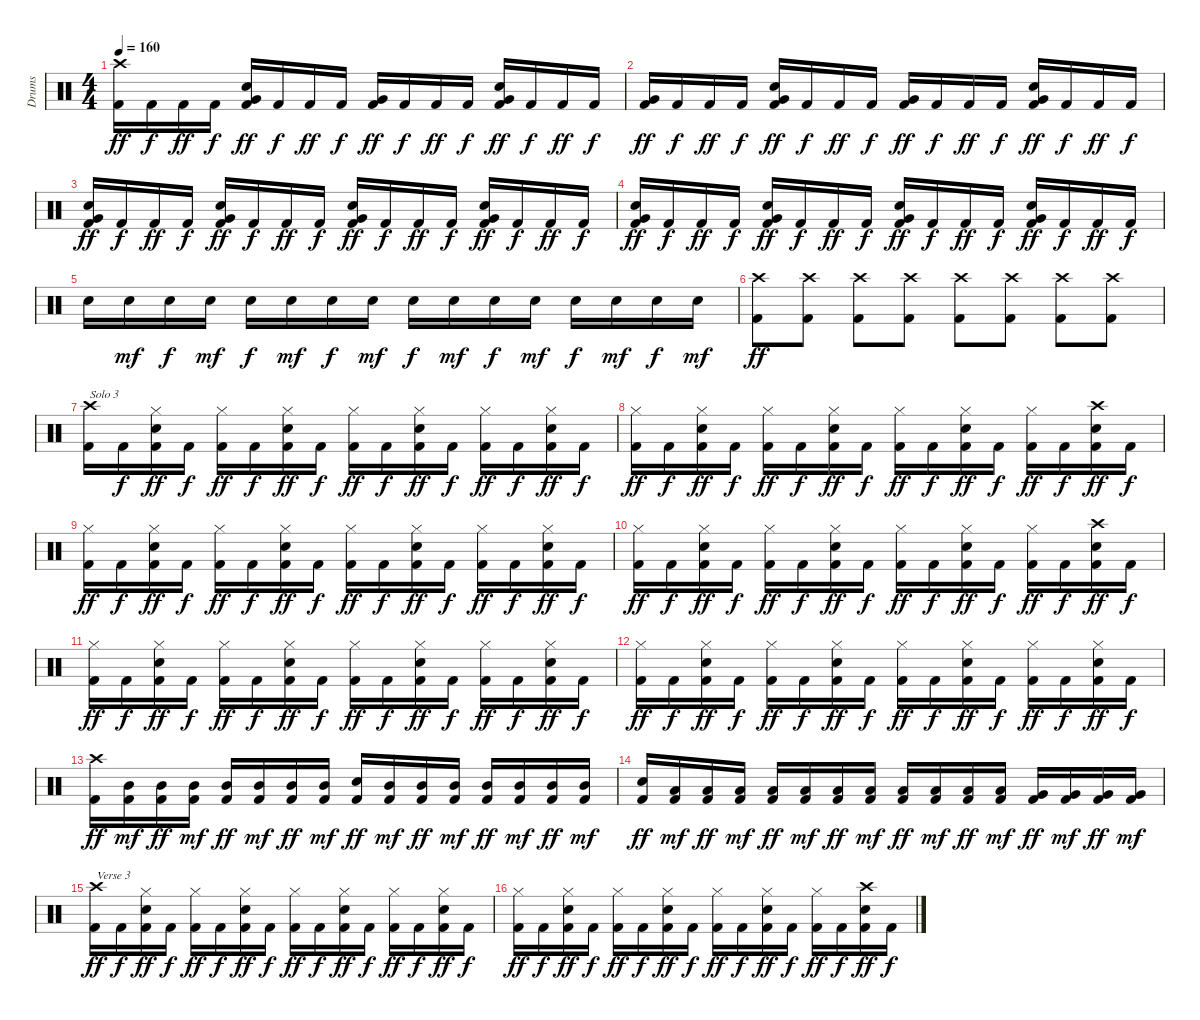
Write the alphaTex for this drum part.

\track ("Drums" "Drums") {instrument percussion}
\staff {score}
\articulation defaults
\ts (4 4)
\tempo 160
\clef neutral
\ks c
("Crash high (hit)" "Kick (hit) 2").16{dy ff} "Kick (hit) 2".16{dy f} "Kick (hit) 2".16{dy ff} "Kick (hit) 2".16{dy f} ("Very Low Tom (hit)" "Snare (hit) 2" "Kick (hit) 2").16{dy ff} "Kick (hit) 2".16{dy f} "Kick (hit) 2".16{dy ff} "Kick (hit) 2".16{dy f} ("Very Low Tom (hit)" "Kick (hit) 2").16{dy ff} "Kick (hit) 2".16{dy f} "Kick (hit) 2".16{dy ff} "Kick (hit) 2".16{dy f} ("Very Low Tom (hit)" "Snare (hit) 2" "Kick (hit) 2").16{dy ff} "Kick (hit) 2".16{dy f} "Kick (hit) 2".16{dy ff} "Kick (hit) 2".16{dy f} |
("Very Low Tom (hit)" "Kick (hit) 2").16{dy ff} "Kick (hit) 2".16{dy f} "Kick (hit) 2".16{dy ff} "Kick (hit) 2".16{dy f} ("Very Low Tom (hit)" "Snare (hit) 2" "Kick (hit) 2").16{dy ff} "Kick (hit) 2".16{dy f} "Kick (hit) 2".16{dy ff} "Kick (hit) 2".16{dy f} ("Very Low Tom (hit)" "Kick (hit) 2").16{dy ff} "Kick (hit) 2".16{dy f} "Kick (hit) 2".16{dy ff} "Kick (hit) 2".16{dy f} ("Very Low Tom (hit)" "Snare (hit) 2" "Kick (hit) 2").16{dy ff} "Kick (hit) 2".16{dy f} "Kick (hit) 2".16{dy ff} "Kick (hit) 2".16{dy f} |
("Very Low Tom (hit)" "Snare (hit) 2" "Kick (hit) 2").16{dy ff} "Kick (hit) 2".16{dy f} "Kick (hit) 2".16{dy ff} "Kick (hit) 2".16{dy f} ("Very Low Tom (hit)" "Snare (hit) 2" "Kick (hit) 2").16{dy ff} "Kick (hit) 2".16{dy f} "Kick (hit) 2".16{dy ff} "Kick (hit) 2".16{dy f} ("Very Low Tom (hit)" "Snare (hit) 2" "Kick (hit) 2").16{dy ff} "Kick (hit) 2".16{dy f} "Kick (hit) 2".16{dy ff} "Kick (hit) 2".16{dy f} ("Very Low Tom (hit)" "Snare (hit) 2" "Kick (hit) 2").16{dy ff} "Kick (hit) 2".16{dy f} "Kick (hit) 2".16{dy ff} "Kick (hit) 2".16{dy f} |
("Very Low Tom (hit)" "Snare (hit) 2" "Kick (hit) 2").16{dy ff} "Kick (hit) 2".16{dy f} "Kick (hit) 2".16{dy ff} "Kick (hit) 2".16{dy f} ("Very Low Tom (hit)" "Snare (hit) 2" "Kick (hit) 2").16{dy ff} "Kick (hit) 2".16{dy f} "Kick (hit) 2".16{dy ff} "Kick (hit) 2".16{dy f} ("Very Low Tom (hit)" "Snare (hit) 2" "Kick (hit) 2").16{dy ff} "Kick (hit) 2".16{dy f} "Kick (hit) 2".16{dy ff} "Kick (hit) 2".16{dy f} ("Very Low Tom (hit)" "Snare (hit) 2" "Kick (hit) 2").16{dy ff} "Kick (hit) 2".16{dy f} "Kick (hit) 2".16{dy ff} "Kick (hit) 2".16{dy f} |
"Snare (hit) 2".16 "Snare (hit) 2".16{dy mf} "Snare (hit) 2".16{dy f} "Snare (hit) 2".16{dy mf} "Snare (hit) 2".16{dy f} "Snare (hit) 2".16{dy mf} "Snare (hit) 2".16{dy f} "Snare (hit) 2".16{dy mf} "Snare (hit) 2".16{dy f} "Snare (hit) 2".16{dy mf} "Snare (hit) 2".16{dy f} "Snare (hit) 2".16{dy mf} "Snare (hit) 2".16{dy f} "Snare (hit) 2".16{dy mf} "Snare (hit) 2".16{dy f} "Snare (hit) 2".16{dy mf} |
("Crash high (hit)" "Kick (hit) 2").8{dy ff} ("Crash high (hit)" "Kick (hit) 2").8 ("Crash high (hit)" "Kick (hit) 2").8 ("Crash high (hit)" "Kick (hit) 2").8 ("Crash high (hit)" "Kick (hit) 2").8 ("Crash high (hit)" "Kick (hit) 2").8 ("Crash high (hit)" "Kick (hit) 2").8 ("Crash high (hit)" "Kick (hit) 2").8 |
("Crash high (hit)" "Kick (hit) 2").16{txt "Solo 3"} "Kick (hit) 2".16{dy f} ("Hi-Hat (closed)" "Snare (hit) 2" "Kick (hit) 2").16{dy ff} "Kick (hit) 2".16{dy f} ("Hi-Hat (closed)" "Kick (hit) 2").16{dy ff} "Kick (hit) 2".16{dy f} ("Hi-Hat (closed)" "Snare (hit) 2" "Kick (hit) 2").16{dy ff} "Kick (hit) 2".16{dy f} ("Hi-Hat (closed)" "Kick (hit) 2").16{dy ff} "Kick (hit) 2".16{dy f} ("Hi-Hat (closed)" "Snare (hit) 2" "Kick (hit) 2").16{dy ff} "Kick (hit) 2".16{dy f} ("Hi-Hat (closed)" "Kick (hit) 2").16{dy ff} "Kick (hit) 2".16{dy f} ("Hi-Hat (closed)" "Snare (hit) 2" "Kick (hit) 2").16{dy ff} "Kick (hit) 2".16{dy f} |
("Hi-Hat (closed)" "Kick (hit) 2").16{dy ff} "Kick (hit) 2".16{dy f} ("Hi-Hat (closed)" "Snare (hit) 2" "Kick (hit) 2").16{dy ff} "Kick (hit) 2".16{dy f} ("Hi-Hat (closed)" "Kick (hit) 2").16{dy ff} "Kick (hit) 2".16{dy f} ("Hi-Hat (closed)" "Snare (hit) 2" "Kick (hit) 2").16{dy ff} "Kick (hit) 2".16{dy f} ("Hi-Hat (closed)" "Kick (hit) 2").16{dy ff} "Kick (hit) 2".16{dy f} ("Hi-Hat (closed)" "Snare (hit) 2" "Kick (hit) 2").16{dy ff} "Kick (hit) 2".16{dy f} ("Hi-Hat (closed)" "Kick (hit) 2").16{dy ff} "Kick (hit) 2".16{dy f} ("Crash high (hit)" "Snare (hit) 2" "Kick (hit) 2").16{dy ff} "Kick (hit) 2".16{dy f} |
("Hi-Hat (closed)" "Kick (hit) 2").16{dy ff} "Kick (hit) 2".16{dy f} ("Hi-Hat (closed)" "Snare (hit) 2" "Kick (hit) 2").16{dy ff} "Kick (hit) 2".16{dy f} ("Hi-Hat (closed)" "Kick (hit) 2").16{dy ff} "Kick (hit) 2".16{dy f} ("Hi-Hat (closed)" "Snare (hit) 2" "Kick (hit) 2").16{dy ff} "Kick (hit) 2".16{dy f} ("Hi-Hat (closed)" "Kick (hit) 2").16{dy ff} "Kick (hit) 2".16{dy f} ("Hi-Hat (closed)" "Snare (hit) 2" "Kick (hit) 2").16{dy ff} "Kick (hit) 2".16{dy f} ("Hi-Hat (closed)" "Kick (hit) 2").16{dy ff} "Kick (hit) 2".16{dy f} ("Hi-Hat (closed)" "Snare (hit) 2" "Kick (hit) 2").16{dy ff} "Kick (hit) 2".16{dy f} |
("Hi-Hat (closed)" "Kick (hit) 2").16{dy ff} "Kick (hit) 2".16{dy f} ("Hi-Hat (closed)" "Snare (hit) 2" "Kick (hit) 2").16{dy ff} "Kick (hit) 2".16{dy f} ("Hi-Hat (closed)" "Kick (hit) 2").16{dy ff} "Kick (hit) 2".16{dy f} ("Hi-Hat (closed)" "Snare (hit) 2" "Kick (hit) 2").16{dy ff} "Kick (hit) 2".16{dy f} ("Hi-Hat (closed)" "Kick (hit) 2").16{dy ff} "Kick (hit) 2".16{dy f} ("Hi-Hat (closed)" "Snare (hit) 2" "Kick (hit) 2").16{dy ff} "Kick (hit) 2".16{dy f} ("Hi-Hat (closed)" "Kick (hit) 2").16{dy ff} "Kick (hit) 2".16{dy f} ("Crash high (hit)" "Snare (hit) 2" "Kick (hit) 2").16{dy ff} "Kick (hit) 2".16{dy f} |
("Hi-Hat (closed)" "Kick (hit) 2").16{dy ff} "Kick (hit) 2".16{dy f} ("Hi-Hat (closed)" "Snare (hit) 2" "Kick (hit) 2").16{dy ff} "Kick (hit) 2".16{dy f} ("Hi-Hat (closed)" "Kick (hit) 2").16{dy ff} "Kick (hit) 2".16{dy f} ("Hi-Hat (closed)" "Snare (hit) 2" "Kick (hit) 2").16{dy ff} "Kick (hit) 2".16{dy f} ("Hi-Hat (closed)" "Kick (hit) 2").16{dy ff} "Kick (hit) 2".16{dy f} ("Hi-Hat (closed)" "Snare (hit) 2" "Kick (hit) 2").16{dy ff} "Kick (hit) 2".16{dy f} ("Hi-Hat (closed)" "Kick (hit) 2").16{dy ff} "Kick (hit) 2".16{dy f} ("Hi-Hat (closed)" "Snare (hit) 2" "Kick (hit) 2").16{dy ff} "Kick (hit) 2".16{dy f} |
("Hi-Hat (closed)" "Kick (hit) 2").16{dy ff} "Kick (hit) 2".16{dy f} ("Hi-Hat (closed)" "Snare (hit) 2" "Kick (hit) 2").16{dy ff} "Kick (hit) 2".16{dy f} ("Hi-Hat (closed)" "Kick (hit) 2").16{dy ff} "Kick (hit) 2".16{dy f} ("Hi-Hat (closed)" "Snare (hit) 2" "Kick (hit) 2").16{dy ff} "Kick (hit) 2".16{dy f} ("Hi-Hat (closed)" "Kick (hit) 2").16{dy ff} "Kick (hit) 2".16{dy f} ("Hi-Hat (closed)" "Snare (hit) 2" "Kick (hit) 2").16{dy ff} "Kick (hit) 2".16{dy f} ("Hi-Hat (closed)" "Kick (hit) 2").16{dy ff} "Kick (hit) 2".16{dy f} ("Hi-Hat (closed)" "Snare (hit) 2" "Kick (hit) 2").16{dy ff} "Kick (hit) 2".16{dy f} |
("Crash high (hit)" "Kick (hit) 2").16{dy ff} ("Mid Tom (hit)" "Kick (hit) 2").16{dy mf} ("Mid Tom (hit)" "Kick (hit) 2").16{dy ff} ("Mid Tom (hit)" "Kick (hit) 2").16{dy mf} ("Mid Tom (hit)" "Kick (hit) 2").16{dy ff} ("Mid Tom (hit)" "Kick (hit) 2").16{dy mf} ("Mid Tom (hit)" "Kick (hit) 2").16{dy ff} ("Mid Tom (hit)" "Kick (hit) 2").16{dy mf} ("Snare (hit) 2" "Kick (hit) 2").16{dy ff} ("Mid Tom (hit)" "Kick (hit) 2").16{dy mf} ("Mid Tom (hit)" "Kick (hit) 2").16{dy ff} ("Mid Tom (hit)" "Kick (hit) 2").16{dy mf} ("Mid Tom (hit)" "Kick (hit) 2").16{dy ff} ("Mid Tom (hit)" "Kick (hit) 2").16{dy mf} ("Mid Tom (hit)" "Kick (hit) 2").16{dy ff} ("Mid Tom (hit)" "Kick (hit) 2").16{dy mf} |
("Snare (hit) 2" "Kick (hit) 2").16{dy ff} ("Low Tom (hit)" "Kick (hit) 2").16{dy mf} ("Low Tom (hit)" "Kick (hit) 2").16{dy ff} ("Low Tom (hit)" "Kick (hit) 2").16{dy mf} ("Low Tom (hit)" "Kick (hit) 2").16{dy ff} ("Low Tom (hit)" "Kick (hit) 2").16{dy mf} ("Low Tom (hit)" "Kick (hit) 2").16{dy ff} ("Low Tom (hit)" "Kick (hit) 2").16{dy mf} ("Low Tom (hit)" "Kick (hit) 2").16{dy ff} ("Low Tom (hit)" "Kick (hit) 2").16{dy mf} ("Low Tom (hit)" "Kick (hit) 2").16{dy ff} ("Low Tom (hit)" "Kick (hit) 2").16{dy mf} ("Very Low Tom (hit)" "Kick (hit) 2").16{dy ff} ("Very Low Tom (hit)" "Kick (hit) 2").16{dy mf} ("Very Low Tom (hit)" "Kick (hit) 2").16{dy ff} ("Very Low Tom (hit)" "Kick (hit) 2").16{dy mf} |
("Crash high (hit)" "Kick (hit) 2").16{txt "Verse 3" dy ff} "Kick (hit) 2".16{dy f} ("Hi-Hat (closed)" "Snare (hit) 2" "Kick (hit) 2").16{dy ff} "Kick (hit) 2".16{dy f} ("Hi-Hat (closed)" "Kick (hit) 2").16{dy ff} "Kick (hit) 2".16{dy f} ("Hi-Hat (closed)" "Snare (hit) 2" "Kick (hit) 2").16{dy ff} "Kick (hit) 2".16{dy f} ("Hi-Hat (closed)" "Kick (hit) 2").16{dy ff} "Kick (hit) 2".16{dy f} ("Hi-Hat (closed)" "Snare (hit) 2" "Kick (hit) 2").16{dy ff} "Kick (hit) 2".16{dy f} ("Hi-Hat (closed)" "Kick (hit) 2").16{dy ff} "Kick (hit) 2".16{dy f} ("Hi-Hat (closed)" "Snare (hit) 2" "Kick (hit) 2").16{dy ff} "Kick (hit) 2".16{dy f} |
("Hi-Hat (closed)" "Kick (hit) 2").16{dy ff} "Kick (hit) 2".16{dy f} ("Hi-Hat (closed)" "Snare (hit) 2" "Kick (hit) 2").16{dy ff} "Kick (hit) 2".16{dy f} ("Hi-Hat (closed)" "Kick (hit) 2").16{dy ff} "Kick (hit) 2".16{dy f} ("Hi-Hat (closed)" "Snare (hit) 2" "Kick (hit) 2").16{dy ff} "Kick (hit) 2".16{dy f} ("Hi-Hat (closed)" "Kick (hit) 2").16{dy ff} "Kick (hit) 2".16{dy f} ("Hi-Hat (closed)" "Snare (hit) 2" "Kick (hit) 2").16{dy ff} "Kick (hit) 2".16{dy f} ("Hi-Hat (closed)" "Kick (hit) 2").16{dy ff} "Kick (hit) 2".16{dy f} ("Crash high (hit)" "Snare (hit) 2" "Kick (hit) 2").16{dy ff} "Kick (hit) 2".16{dy f}
